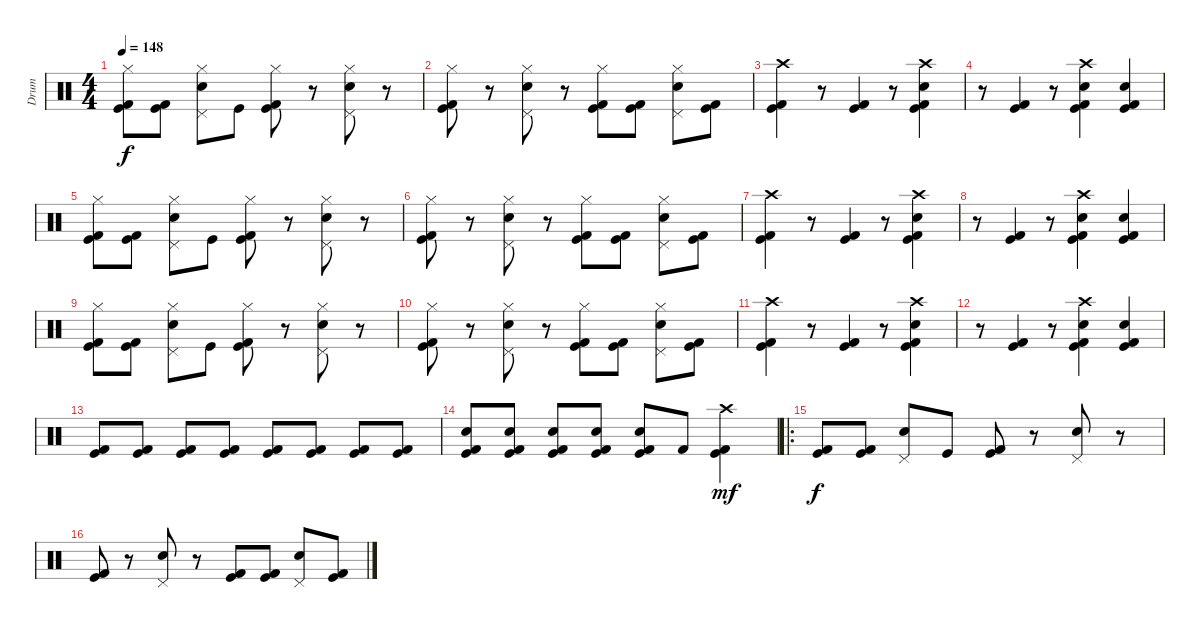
\track ("Drum" "Drum") {instrument percussion}
\staff {score}
\articulation defaults
\ts (4 4)
\tempo 148
\clef neutral
\ks c
("Hi-Hat (closed)" "Kick (hit)" "Kick (hit) 2").8{dy f} ("Kick (hit)" "Kick (hit) 2").8 ("Hi-Hat (closed)" "Pedal Hi-Hat (hit)" "Snare (hit) 2").8 "Kick (hit)".8 ("Hi-Hat (closed)" "Kick (hit)" "Kick (hit) 2").8 r.8 ("Hi-Hat (closed)" "Pedal Hi-Hat (hit)" "Snare (hit) 2").8 r.8 |
("Hi-Hat (closed)" "Kick (hit)" "Kick (hit) 2").8 r.8 ("Hi-Hat (closed)" "Pedal Hi-Hat (hit)" "Snare (hit) 2").8 r.8 ("Hi-Hat (closed)" "Kick (hit)" "Kick (hit) 2").8 ("Kick (hit)" "Kick (hit) 2").8 ("Hi-Hat (closed)" "Pedal Hi-Hat (hit)" "Snare (hit) 2").8 ("Kick (hit)" "Kick (hit) 2").8 |
("Crash high (hit)" "Kick (hit)" "Kick (hit) 2").4 r.8 ("Kick (hit)" "Kick (hit) 2").4 r.8 ("Crash high (hit)" "Snare (hit) 2" "Kick (hit)" "Kick (hit) 2").4 |
r.8 ("Kick (hit)" "Kick (hit) 2").4 r.8 ("Crash high (hit)" "Snare (hit) 2" "Kick (hit)" "Kick (hit) 2").4 ("Snare (hit) 2" "Kick (hit) 2" "Kick (hit)").4 |
("Hi-Hat (closed)" "Kick (hit)" "Kick (hit) 2").8 ("Kick (hit)" "Kick (hit) 2").8 ("Hi-Hat (closed)" "Pedal Hi-Hat (hit)" "Snare (hit) 2").8 "Kick (hit)".8 ("Hi-Hat (closed)" "Kick (hit)" "Kick (hit) 2").8 r.8 ("Hi-Hat (closed)" "Pedal Hi-Hat (hit)" "Snare (hit) 2").8 r.8 |
("Hi-Hat (closed)" "Kick (hit)" "Kick (hit) 2").8 r.8 ("Hi-Hat (closed)" "Pedal Hi-Hat (hit)" "Snare (hit) 2").8 r.8 ("Hi-Hat (closed)" "Kick (hit)" "Kick (hit) 2").8 ("Kick (hit)" "Kick (hit) 2").8 ("Hi-Hat (closed)" "Pedal Hi-Hat (hit)" "Snare (hit) 2").8 ("Kick (hit)" "Kick (hit) 2").8 |
("Crash high (hit)" "Kick (hit)" "Kick (hit) 2").4 r.8 ("Kick (hit)" "Kick (hit) 2").4 r.8 ("Crash high (hit)" "Snare (hit) 2" "Kick (hit)" "Kick (hit) 2").4 |
r.8 ("Kick (hit)" "Kick (hit) 2").4 r.8 ("Crash high (hit)" "Snare (hit) 2" "Kick (hit)" "Kick (hit) 2").4 ("Snare (hit) 2" "Kick (hit) 2" "Kick (hit)").4 |
("Hi-Hat (closed)" "Kick (hit)" "Kick (hit) 2").8 ("Kick (hit)" "Kick (hit) 2").8 ("Hi-Hat (closed)" "Pedal Hi-Hat (hit)" "Snare (hit) 2").8 "Kick (hit)".8 ("Hi-Hat (closed)" "Kick (hit)" "Kick (hit) 2").8 r.8 ("Hi-Hat (closed)" "Pedal Hi-Hat (hit)" "Snare (hit) 2").8 r.8 |
("Hi-Hat (closed)" "Kick (hit)" "Kick (hit) 2").8 r.8 ("Hi-Hat (closed)" "Pedal Hi-Hat (hit)" "Snare (hit) 2").8 r.8 ("Hi-Hat (closed)" "Kick (hit)" "Kick (hit) 2").8 ("Kick (hit)" "Kick (hit) 2").8 ("Hi-Hat (closed)" "Pedal Hi-Hat (hit)" "Snare (hit) 2").8 ("Kick (hit)" "Kick (hit) 2").8 |
("Crash high (hit)" "Kick (hit)" "Kick (hit) 2").4 r.8 ("Kick (hit)" "Kick (hit) 2").4 r.8 ("Crash high (hit)" "Snare (hit) 2" "Kick (hit)" "Kick (hit) 2").4 |
r.8 ("Kick (hit)" "Kick (hit) 2").4 r.8 ("Crash high (hit)" "Snare (hit) 2" "Kick (hit)" "Kick (hit) 2").4 ("Snare (hit) 2" "Kick (hit) 2" "Kick (hit)").4 |
("Kick (hit)" "Kick (hit) 2").8 ("Kick (hit)" "Kick (hit) 2").8 ("Kick (hit)" "Kick (hit) 2").8 ("Kick (hit)" "Kick (hit) 2").8 ("Kick (hit)" "Kick (hit) 2").8 ("Kick (hit)" "Kick (hit) 2").8 ("Kick (hit)" "Kick (hit) 2").8 ("Kick (hit)" "Kick (hit) 2").8 |
("Snare (hit) 2" "Kick (hit)" "Kick (hit) 2").8 ("Snare (hit) 2" "Kick (hit)" "Kick (hit) 2").8 ("Snare (hit) 2" "Kick (hit)" "Kick (hit) 2").8 ("Snare (hit) 2" "Kick (hit)" "Kick (hit) 2").8 ("Snare (hit) 2" "Kick (hit)" "Kick (hit) 2").8 "Kick (hit) 2".8 ("Crash high (hit)" "Kick (hit)" "Kick (hit) 2").4{dy mf} |
\ro
("Kick (hit)" "Kick (hit) 2").8{dy f} ("Kick (hit)" "Kick (hit) 2").8 ("Pedal Hi-Hat (hit)" "Snare (hit) 2").8 "Kick (hit)".8 ("Kick (hit)" "Kick (hit) 2").8 r.8 ("Pedal Hi-Hat (hit)" "Snare (hit) 2").8 r.8 |
("Kick (hit)" "Kick (hit) 2").8 r.8 ("Pedal Hi-Hat (hit)" "Snare (hit) 2").8 r.8 ("Kick (hit)" "Kick (hit) 2").8 ("Kick (hit)" "Kick (hit) 2").8 ("Pedal Hi-Hat (hit)" "Snare (hit) 2").8 ("Kick (hit)" "Kick (hit) 2").8
